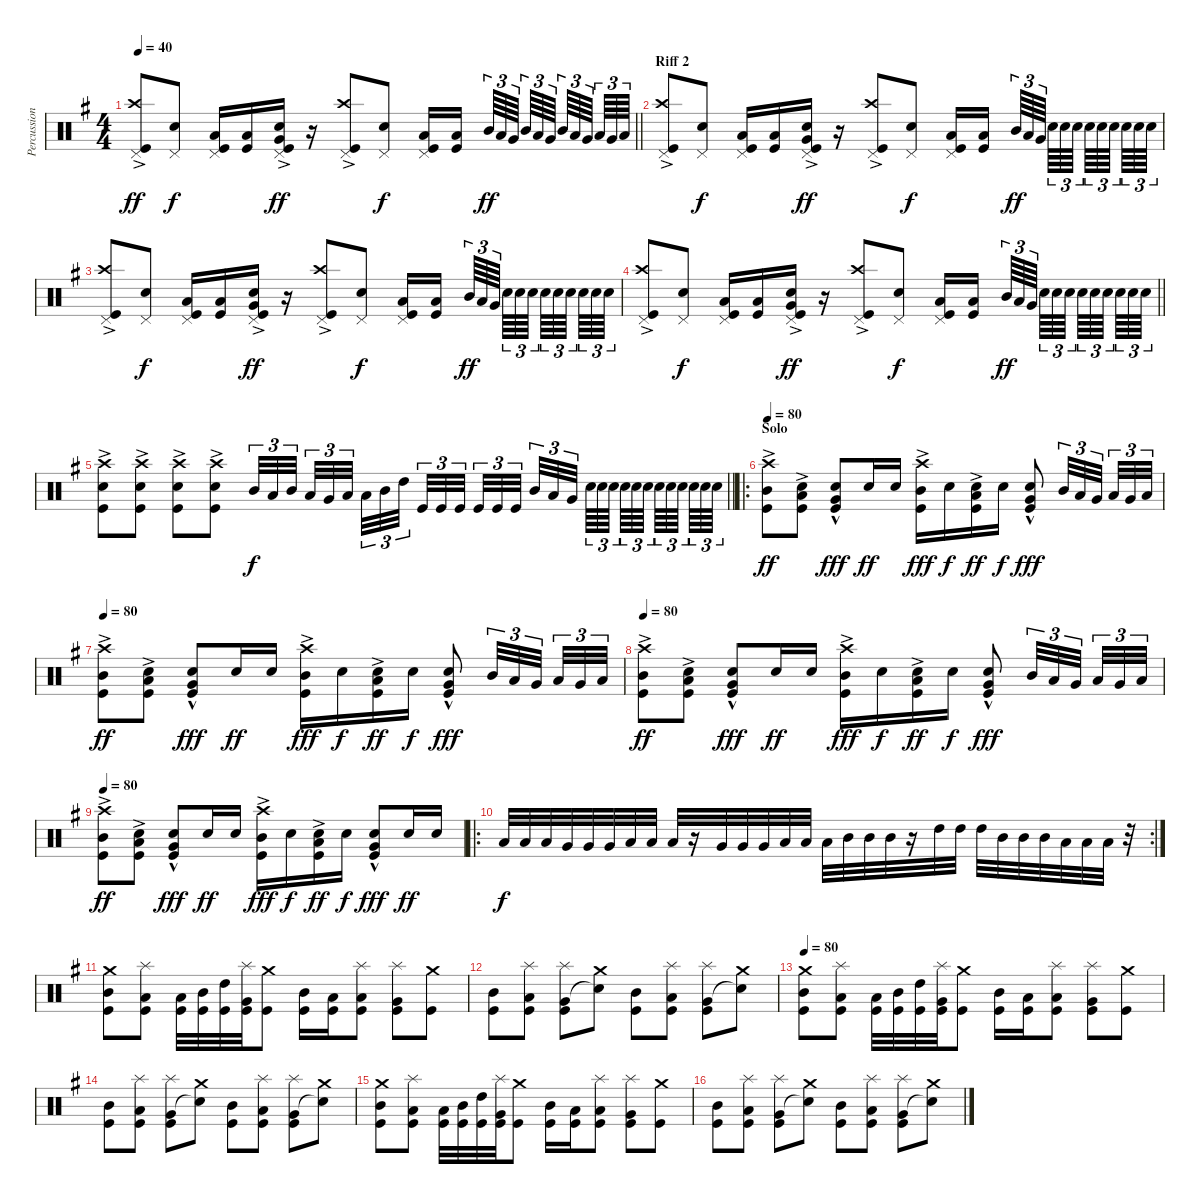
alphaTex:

\track ("Percussion" "Percussion") {instrument percussion}
\staff {score}
\articulation defaults
\ts (4 4)
\tempo 40
\clef neutral
\barLineRight lightlight
\ks eminor
("Pedal Hi-Hat (hit)"{ac} "Crash high (hit)"{ac} "Kick (hit)"{ac}).8{dy ff} ("Pedal Hi-Hat (hit)" "Snare (hit) 2").8{dy f} ("Pedal Hi-Hat (hit)" "Low Floor Tom (hit)" "Kick (hit)").16 ("Low Floor Tom (hit)" "Kick (hit)").16 ("Pedal Hi-Hat (hit)"{ac} "Snare (hit) 2"{ac} "Very Low Tom (hit)"{ac} "Kick (hit)"{ac}).16{dy ff} r.16 ("Pedal Hi-Hat (hit)"{ac} "Crash high (hit)"{ac} "Kick (hit)"{ac}).8 ("Pedal Hi-Hat (hit)" "Snare (hit) 2").8{dy f} ("Pedal Hi-Hat (hit)" "Low Floor Tom (hit)" "Kick (hit)").16 ("Low Tom (hit)" "Kick (hit)").16{beam splitsecondary} "Mid Tom (hit)".64{tu (3 2) dy ff} "Low Tom (hit)".64{tu (3 2)} "Very Low Tom (hit)".64{tu (3 2) beam splitsecondary} "Mid Tom (hit)".64{tu (3 2)} "Low Tom (hit)".64{tu (3 2)} "Very Low Tom (hit)".64{tu (3 2) beam splitsecondary} "Mid Tom (hit)".64{tu (3 2)} "Low Tom (hit)".64{tu (3 2)} "Very Low Tom (hit)".64{tu (3 2) beam splitsecondary} "Low Tom (hit)".64{tu (3 2)} "Very Low Tom (hit)".64{tu (3 2)} "Low Floor Tom (hit)".64{tu (3 2)} |
\section ("" "Riff 2")
("Pedal Hi-Hat (hit)"{ac} "Crash high (hit)"{ac} "Kick (hit)"{ac}).8 ("Pedal Hi-Hat (hit)" "Snare (hit) 2").8{dy f} ("Pedal Hi-Hat (hit)" "Low Floor Tom (hit)" "Kick (hit)").16 ("Low Floor Tom (hit)" "Kick (hit)").16 ("Pedal Hi-Hat (hit)"{ac} "Snare (hit) 2"{ac} "Very Low Tom (hit)"{ac} "Kick (hit)"{ac}).16{dy ff} r.16 ("Pedal Hi-Hat (hit)"{ac} "Crash high (hit)"{ac} "Kick (hit)"{ac}).8 ("Pedal Hi-Hat (hit)" "Snare (hit) 2").8{dy f} ("Pedal Hi-Hat (hit)" "Low Floor Tom (hit)" "Kick (hit)").16 ("Low Tom (hit)" "Kick (hit)").16{beam splitsecondary} "Mid Tom (hit)".64{tu (3 2) dy ff} "Low Tom (hit)".64{tu (3 2)} "Very Low Tom (hit)".64{tu (3 2) beam splitsecondary} "Snare (hit) 2".64{tu (3 2)} "Snare (hit) 2".64{tu (3 2)} "Snare (hit) 2".64{tu (3 2) beam splitsecondary} "Snare (hit) 2".64{tu (3 2)} "Snare (hit) 2".64{tu (3 2)} "Snare (hit) 2".64{tu (3 2) beam splitsecondary} "Snare (hit) 2".64{tu (3 2)} "Snare (hit) 2".64{tu (3 2)} "Snare (hit) 2".64{tu (3 2)} |
("Pedal Hi-Hat (hit)"{ac} "Crash high (hit)"{ac} "Kick (hit)"{ac}).8 ("Pedal Hi-Hat (hit)" "Snare (hit) 2").8{dy f} ("Pedal Hi-Hat (hit)" "Low Floor Tom (hit)" "Kick (hit)").16 ("Low Floor Tom (hit)" "Kick (hit)").16 ("Pedal Hi-Hat (hit)"{ac} "Snare (hit) 2"{ac} "Very Low Tom (hit)"{ac} "Kick (hit)"{ac}).16{dy ff} r.16 ("Pedal Hi-Hat (hit)"{ac} "Crash high (hit)"{ac} "Kick (hit)"{ac}).8 ("Pedal Hi-Hat (hit)" "Snare (hit) 2").8{dy f} ("Pedal Hi-Hat (hit)" "Low Floor Tom (hit)" "Kick (hit)").16 ("Low Tom (hit)" "Kick (hit)").16{beam splitsecondary} "Mid Tom (hit)".64{tu (3 2) dy ff} "Low Tom (hit)".64{tu (3 2)} "Very Low Tom (hit)".64{tu (3 2) beam splitsecondary} "Snare (hit) 2".64{tu (3 2)} "Snare (hit) 2".64{tu (3 2)} "Snare (hit) 2".64{tu (3 2) beam splitsecondary} "Snare (hit) 2".64{tu (3 2)} "Snare (hit) 2".64{tu (3 2)} "Snare (hit) 2".64{tu (3 2) beam splitsecondary} "Snare (hit) 2".64{tu (3 2)} "Snare (hit) 2".64{tu (3 2)} "Snare (hit) 2".64{tu (3 2)} |
\barLineRight lightlight
("Pedal Hi-Hat (hit)"{ac} "Crash high (hit)"{ac} "Kick (hit)"{ac}).8 ("Pedal Hi-Hat (hit)" "Snare (hit) 2").8{dy f} ("Pedal Hi-Hat (hit)" "Low Floor Tom (hit)" "Kick (hit)").16 ("Low Floor Tom (hit)" "Kick (hit)").16 ("Pedal Hi-Hat (hit)"{ac} "Snare (hit) 2"{ac} "Very Low Tom (hit)"{ac} "Kick (hit)"{ac}).16{dy ff} r.16 ("Pedal Hi-Hat (hit)"{ac} "Crash high (hit)"{ac} "Kick (hit)"{ac}).8 ("Pedal Hi-Hat (hit)" "Snare (hit) 2").8{dy f} ("Pedal Hi-Hat (hit)" "Low Floor Tom (hit)" "Kick (hit)").16 ("Low Tom (hit)" "Kick (hit)").16{beam splitsecondary} "Mid Tom (hit)".64{tu (3 2) dy ff} "Low Tom (hit)".64{tu (3 2)} "Very Low Tom (hit)".64{tu (3 2) beam splitsecondary} "Snare (hit) 2".64{tu (3 2)} "Snare (hit) 2".64{tu (3 2)} "Snare (hit) 2".64{tu (3 2) beam splitsecondary} "Snare (hit) 2".64{tu (3 2)} "Snare (hit) 2".64{tu (3 2)} "Snare (hit) 2".64{tu (3 2) beam splitsecondary} "Snare (hit) 2".64{tu (3 2)} "Snare (hit) 2".64{tu (3 2)} "Snare (hit) 2".64{tu (3 2)} |
\section ("" "")
\barLineRight lightlight
("Crash high (hit)"{ac} "Snare (hit) 2"{ac} "Kick (hit)"{ac}).8 ("Crash high (hit)"{ac} "Snare (hit) 2"{ac} "Kick (hit)"{ac}).8 ("Crash high (hit)"{ac} "Snare (hit) 2"{ac} "Kick (hit)"{ac}).8 ("Crash high (hit)"{ac} "Snare (hit) 2"{ac} "Kick (hit)"{ac}).8 "Mid Tom (hit)".32{tu (3 2) dy f} "Low Tom (hit)".32{tu (3 2)} "Mid Tom (hit)".32{tu (3 2) beam splitsecondary} "Low Floor Tom (hit)".32{tu (3 2)} "Very Low Tom (hit)".32{tu (3 2)} "Low Tom (hit)".32{tu (3 2) beam splitsecondary} "Low Tom (hit)".32{tu (3 2)} "Mid Tom (hit)".32{tu (3 2)} "High Tom (hit)".32{tu (3 2) beam splitsecondary} "Kick (hit)".32{tu (3 2)} "Kick (hit)".32{tu (3 2)} "Kick (hit)".32{tu (3 2)} "Kick (hit)".32{tu (3 2)} "Kick (hit)".32{tu (3 2)} "Kick (hit)".32{tu (3 2) beam splitsecondary} "Mid Tom (hit)".32{tu (3 2)} "Low Tom (hit)".32{tu (3 2)} "Very Low Tom (hit)".32{tu (3 2) beam splitsecondary} "Snare (hit) 2".64{tu (3 2)} "Snare (hit) 2".64{tu (3 2)} "Snare (hit) 2".64{tu (3 2) beam splitsecondary} "Snare (hit) 2".64{tu (3 2)} "Snare (hit) 2".64{tu (3 2)} "Snare (hit) 2".64{tu (3 2) beam splitsecondary} "Snare (hit) 2".64{tu (3 2)} "Snare (hit) 2".64{tu (3 2)} "Snare (hit) 2".64{tu (3 2) beam splitsecondary} "Snare (hit) 2".64{tu (3 2)} "Snare (hit) 2".64{tu (3 2)} "Snare (hit) 2".64{tu (3 2)} |
\ro
\section ("" "Solo")
\tempo 80
("Crash high (hit)"{ac} "Mid Tom (hit)"{ac} "Kick (hit)"{ac}).8{dy ff} ("Snare (hit) 2"{ac} "Low Tom (hit)"{ac} "Kick (hit)"{ac}).8 ("Snare (hit) 2"{hac} "Very Low Tom (hit)"{hac} "Kick (hit)"{hac}).8{dy fff} "Snare (hit) 2".16{dy ff} "Snare (hit) 2".16 ("Crash high (hit)"{ac} "Mid Tom (hit)"{ac} "Kick (hit)"{ac}).16{dy fff} "Snare (hit) 2".16{dy f} ("Snare (hit) 2" "Low Tom (hit)" "Kick (hit)"{ac}).16{dy ff} "Snare (hit) 2".16{dy f} ("Snare (hit) 2" "Very Low Tom (hit)"{hac} "Kick (hit)"{hac}).8{dy fff} "Mid Tom (hit)".32{tu (3 2)} "Low Tom (hit)".32{tu (3 2)} "Very Low Tom (hit)".32{tu (3 2) beam splitsecondary} "Low Tom (hit)".32{tu (3 2)} "Very Low Tom (hit)".32{tu (3 2)} "Low Floor Tom (hit)".32{tu (3 2)} |
\tempo 80
("Crash high (hit)"{ac} "Mid Tom (hit)"{ac} "Kick (hit)"{ac}).8{dy ff} ("Snare (hit) 2"{ac} "Low Tom (hit)"{ac} "Kick (hit)"{ac}).8 ("Snare (hit) 2"{hac} "Very Low Tom (hit)"{hac} "Kick (hit)"{hac}).8{dy fff} "Snare (hit) 2".16{dy ff} "Snare (hit) 2".16 ("Crash high (hit)"{ac} "Mid Tom (hit)"{ac} "Kick (hit)"{ac}).16{dy fff} "Snare (hit) 2".16{dy f} ("Snare (hit) 2" "Low Tom (hit)" "Kick (hit)"{ac}).16{dy ff} "Snare (hit) 2".16{dy f} ("Snare (hit) 2" "Very Low Tom (hit)"{hac} "Kick (hit)"{hac}).8{dy fff} "Mid Tom (hit)".32{tu (3 2)} "Low Tom (hit)".32{tu (3 2)} "Very Low Tom (hit)".32{tu (3 2) beam splitsecondary} "Low Tom (hit)".32{tu (3 2)} "Very Low Tom (hit)".32{tu (3 2)} "Low Floor Tom (hit)".32{tu (3 2)} |
\tempo 80
("Crash high (hit)"{ac} "Mid Tom (hit)"{ac} "Kick (hit)"{ac}).8{dy ff} ("Snare (hit) 2"{ac} "Low Tom (hit)"{ac} "Kick (hit)"{ac}).8 ("Snare (hit) 2"{hac} "Very Low Tom (hit)"{hac} "Kick (hit)"{hac}).8{dy fff} "Snare (hit) 2".16{dy ff} "Snare (hit) 2".16 ("Crash high (hit)"{ac} "Mid Tom (hit)"{ac} "Kick (hit)"{ac}).16{dy fff} "Snare (hit) 2".16{dy f} ("Snare (hit) 2" "Low Tom (hit)" "Kick (hit)"{ac}).16{dy ff} "Snare (hit) 2".16{dy f} ("Snare (hit) 2" "Very Low Tom (hit)"{hac} "Kick (hit)"{hac}).8{dy fff} "Mid Tom (hit)".32{tu (3 2)} "Low Tom (hit)".32{tu (3 2)} "Very Low Tom (hit)".32{tu (3 2) beam splitsecondary} "Low Tom (hit)".32{tu (3 2)} "Very Low Tom (hit)".32{tu (3 2)} "Low Floor Tom (hit)".32{tu (3 2)} |
\tempo 80
("Crash high (hit)"{ac} "Mid Tom (hit)"{ac} "Kick (hit)"{ac}).8{dy ff} ("Snare (hit) 2"{ac} "Low Tom (hit)"{ac} "Kick (hit)"{ac}).8 ("Snare (hit) 2"{hac} "Very Low Tom (hit)"{hac} "Kick (hit)"{hac}).8{dy fff} "Snare (hit) 2".16{dy ff} "Snare (hit) 2".16 ("Crash high (hit)"{ac} "Mid Tom (hit)"{ac} "Kick (hit)"{ac}).16{dy fff} "Snare (hit) 2".16{dy f} ("Snare (hit) 2" "Low Tom (hit)" "Kick (hit)"{ac}).16{dy ff} "Snare (hit) 2".16{dy f} ("Snare (hit) 2" "Very Low Tom (hit)"{hac} "Kick (hit)"{hac}).8{dy fff} "Snare (hit) 2".16{dy ff} "Snare (hit) 2".16 |
\ro
\rc 2 "Low Floor Tom (hit)".32{dy f} "Low Floor Tom (hit)".32 "Low Floor Tom (hit)".32 "Very Low Tom (hit)".32 "Very Low Tom (hit)".32 "Very Low Tom (hit)".32 "Low Tom (hit)".32 "Low Tom (hit)".32 "Low Tom (hit)".32
r.16 "Very Low Tom (hit)".32 "Very Low Tom (hit)".32 "Very Low Tom (hit)".32 "Low Tom (hit)".32 "Low Tom (hit)".32 "Low Tom (hit)".32 "Mid Tom (hit)".32 "Mid Tom (hit)".32 "Mid Tom (hit)".32 r.16 "High Tom (hit)".32 "High Tom (hit)".32 "High Tom (hit)".32 "Mid Tom (hit)".32 "Mid Tom (hit)".32 "Mid Tom (hit)".32 "Low Tom (hit)".32 "Low Tom (hit)".32 "Low Tom (hit)".32 r.32 |
("Crash medium (hit)" "Mid Tom (hit)" "Kick (hit)").8 ("Splash (hit)" "Low Tom (hit)" "Kick (hit)").8 ("Low Tom (hit)" "Kick (hit)").32 ("Mid Tom (hit)" "Kick (hit)").32 ("High Tom (hit)" "Kick (hit)").32 ("Splash (hit)" "Very Low Tom (hit)" "Kick (hit)").32 ("Crash medium (hit)" "Kick (hit)").8 ("Mid Tom (hit)" "Kick (hit)").16 ("Low Tom (hit)" "Kick (hit)").16 ("Splash (hit)" "Low Tom (hit)" "Kick (hit)").8 ("Splash (hit)" "Very Low Tom (hit)" "Kick (hit)").8 ("Crash medium (hit)" "Kick (hit)").8 |
("Mid Tom (hit)" "Kick (hit)").8 ("Splash (hit)" "Low Tom (hit)" "Kick (hit)").8 ("Splash (hit)" "Very Low Tom (hit)" "Kick (hit)").8 ("Crash medium (hit)" "Snare (hit)"{t}).8 ("Mid Tom (hit)" "Kick (hit)").8 ("Splash (hit)" "Low Tom (hit)" "Kick (hit)").8 ("Splash (hit)" "Very Low Tom (hit)" "Kick (hit)").8 ("Crash medium (hit)" "Snare (hit)"{t}).8 |
\tempo 80
("Crash medium (hit)" "Mid Tom (hit)" "Kick (hit)").8 ("Splash (hit)" "Low Tom (hit)" "Kick (hit)").8 ("Low Tom (hit)" "Kick (hit)").32 ("Mid Tom (hit)" "Kick (hit)").32 ("High Tom (hit)" "Kick (hit)").32 ("Splash (hit)" "Very Low Tom (hit)" "Kick (hit)").32 ("Crash medium (hit)" "Kick (hit)").8 ("Mid Tom (hit)" "Kick (hit)").16 ("Low Tom (hit)" "Kick (hit)").16 ("Splash (hit)" "Low Tom (hit)" "Kick (hit)").8 ("Splash (hit)" "Very Low Tom (hit)" "Kick (hit)").8 ("Crash medium (hit)" "Kick (hit)").8 |
("Mid Tom (hit)" "Kick (hit)").8 ("Splash (hit)" "Low Tom (hit)" "Kick (hit)").8 ("Splash (hit)" "Very Low Tom (hit)" "Kick (hit)").8 ("Crash medium (hit)" "Snare (hit)"{t}).8 ("Mid Tom (hit)" "Kick (hit)").8 ("Splash (hit)" "Low Tom (hit)" "Kick (hit)").8 ("Splash (hit)" "Very Low Tom (hit)" "Kick (hit)").8 ("Crash medium (hit)" "Snare (hit)"{t}).8 |
("Crash medium (hit)" "Mid Tom (hit)" "Kick (hit)").8 ("Splash (hit)" "Low Tom (hit)" "Kick (hit)").8 ("Low Tom (hit)" "Kick (hit)").32 ("Mid Tom (hit)" "Kick (hit)").32 ("High Tom (hit)" "Kick (hit)").32 ("Splash (hit)" "Very Low Tom (hit)" "Kick (hit)").32 ("Crash medium (hit)" "Kick (hit)").8 ("Mid Tom (hit)" "Kick (hit)").16 ("Low Tom (hit)" "Kick (hit)").16 ("Splash (hit)" "Low Tom (hit)" "Kick (hit)").8 ("Splash (hit)" "Very Low Tom (hit)" "Kick (hit)").8 ("Crash medium (hit)" "Kick (hit)").8 |
("Mid Tom (hit)" "Kick (hit)").8 ("Splash (hit)" "Low Tom (hit)" "Kick (hit)").8 ("Splash (hit)" "Very Low Tom (hit)" "Kick (hit)").8 ("Crash medium (hit)" "Snare (hit)"{t}).8 ("Mid Tom (hit)" "Kick (hit)").8 ("Splash (hit)" "Low Tom (hit)" "Kick (hit)").8 ("Splash (hit)" "Very Low Tom (hit)" "Kick (hit)").8 ("Crash medium (hit)" "Snare (hit)"{t}).8
